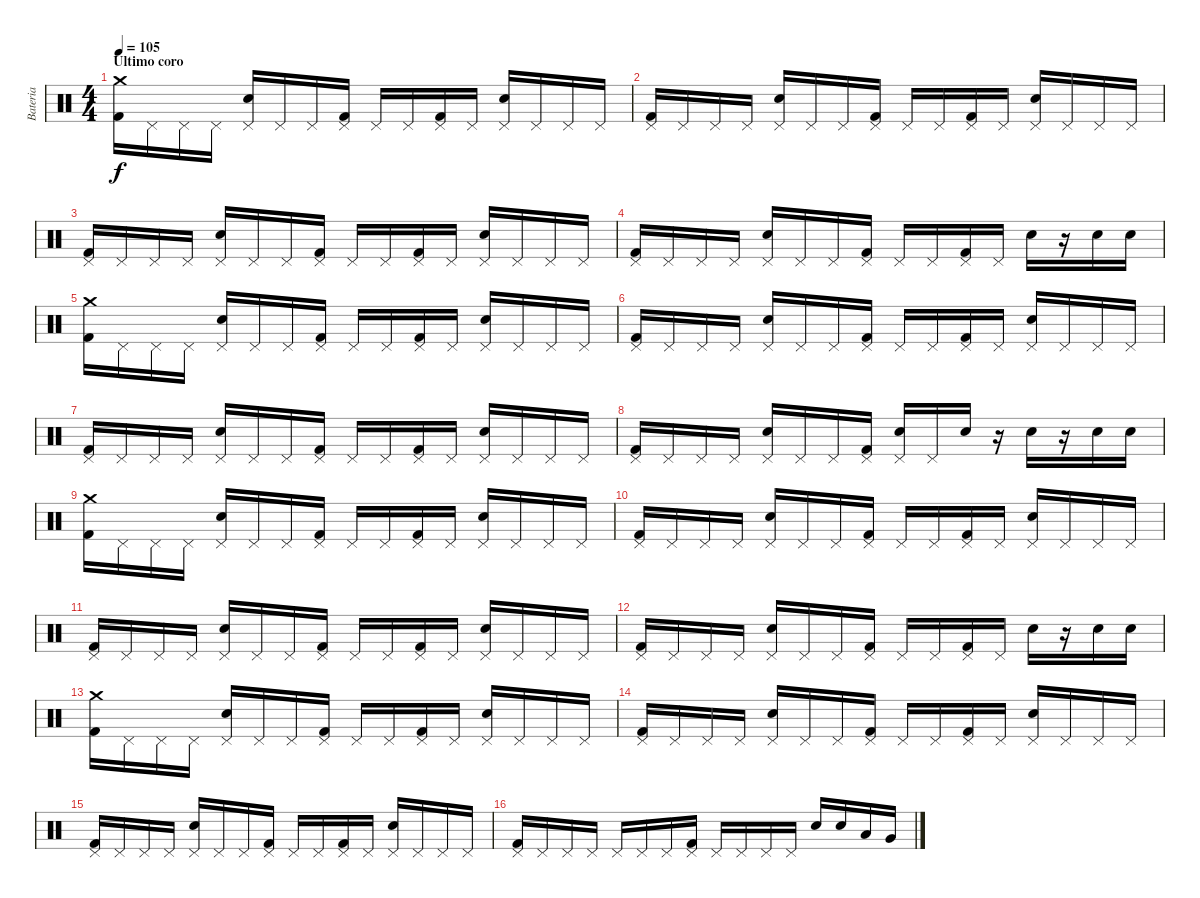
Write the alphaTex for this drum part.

\track ("Bateria" "Bateria") {instrument percussion}
\staff {score}
\articulation defaults
\ts (4 4)
\section ("" "Ultimo coro")
\tempo 105
\clef neutral
\ks c
("Crash medium (hit)" "Kick (hit) 2").16{dy f} "Pedal Hi-Hat (hit)".16 "Pedal Hi-Hat (hit)".16 "Pedal Hi-Hat (hit)".16 ("Pedal Hi-Hat (hit)" "Electric Snare (hit)").16 "Pedal Hi-Hat (hit)".16 "Pedal Hi-Hat (hit)".16 ("Pedal Hi-Hat (hit)" "Kick (hit) 2").16 "Pedal Hi-Hat (hit)".16 "Pedal Hi-Hat (hit)".16 ("Pedal Hi-Hat (hit)" "Kick (hit) 2").16 "Pedal Hi-Hat (hit)".16 ("Pedal Hi-Hat (hit)" "Electric Snare (hit)").16 "Pedal Hi-Hat (hit)".16 "Pedal Hi-Hat (hit)".16 "Pedal Hi-Hat (hit)".16 |
("Pedal Hi-Hat (hit)" "Kick (hit) 2").16 "Pedal Hi-Hat (hit)".16 "Pedal Hi-Hat (hit)".16 "Pedal Hi-Hat (hit)".16 ("Pedal Hi-Hat (hit)" "Electric Snare (hit)").16 "Pedal Hi-Hat (hit)".16 "Pedal Hi-Hat (hit)".16 ("Pedal Hi-Hat (hit)" "Kick (hit) 2").16 "Pedal Hi-Hat (hit)".16 "Pedal Hi-Hat (hit)".16 ("Pedal Hi-Hat (hit)" "Kick (hit) 2").16 "Pedal Hi-Hat (hit)".16 ("Pedal Hi-Hat (hit)" "Electric Snare (hit)").16 "Pedal Hi-Hat (hit)".16 "Pedal Hi-Hat (hit)".16 "Pedal Hi-Hat (hit)".16 |
("Pedal Hi-Hat (hit)" "Kick (hit) 2").16 "Pedal Hi-Hat (hit)".16 "Pedal Hi-Hat (hit)".16 "Pedal Hi-Hat (hit)".16 ("Pedal Hi-Hat (hit)" "Electric Snare (hit)").16 "Pedal Hi-Hat (hit)".16 "Pedal Hi-Hat (hit)".16 ("Pedal Hi-Hat (hit)" "Kick (hit) 2").16 "Pedal Hi-Hat (hit)".16 "Pedal Hi-Hat (hit)".16 ("Pedal Hi-Hat (hit)" "Kick (hit) 2").16 "Pedal Hi-Hat (hit)".16 ("Pedal Hi-Hat (hit)" "Electric Snare (hit)").16 "Pedal Hi-Hat (hit)".16 "Pedal Hi-Hat (hit)".16 "Pedal Hi-Hat (hit)".16 |
("Pedal Hi-Hat (hit)" "Kick (hit) 2").16 "Pedal Hi-Hat (hit)".16 "Pedal Hi-Hat (hit)".16 "Pedal Hi-Hat (hit)".16 ("Pedal Hi-Hat (hit)" "Electric Snare (hit)").16 "Pedal Hi-Hat (hit)".16 "Pedal Hi-Hat (hit)".16 ("Pedal Hi-Hat (hit)" "Kick (hit) 2").16 "Pedal Hi-Hat (hit)".16 "Pedal Hi-Hat (hit)".16 ("Pedal Hi-Hat (hit)" "Kick (hit) 2").16 "Pedal Hi-Hat (hit)".16 "Electric Snare (hit)".16 r.16 "Electric Snare (hit)".16 "Electric Snare (hit)".16 |
("Crash medium (hit)" "Kick (hit) 2").16 "Pedal Hi-Hat (hit)".16 "Pedal Hi-Hat (hit)".16 "Pedal Hi-Hat (hit)".16 ("Pedal Hi-Hat (hit)" "Electric Snare (hit)").16 "Pedal Hi-Hat (hit)".16 "Pedal Hi-Hat (hit)".16 ("Pedal Hi-Hat (hit)" "Kick (hit) 2").16 "Pedal Hi-Hat (hit)".16 "Pedal Hi-Hat (hit)".16 ("Pedal Hi-Hat (hit)" "Kick (hit) 2").16 "Pedal Hi-Hat (hit)".16 ("Pedal Hi-Hat (hit)" "Electric Snare (hit)").16 "Pedal Hi-Hat (hit)".16 "Pedal Hi-Hat (hit)".16 "Pedal Hi-Hat (hit)".16 |
("Pedal Hi-Hat (hit)" "Kick (hit) 2").16 "Pedal Hi-Hat (hit)".16 "Pedal Hi-Hat (hit)".16 "Pedal Hi-Hat (hit)".16 ("Pedal Hi-Hat (hit)" "Electric Snare (hit)").16 "Pedal Hi-Hat (hit)".16 "Pedal Hi-Hat (hit)".16 ("Pedal Hi-Hat (hit)" "Kick (hit) 2").16 "Pedal Hi-Hat (hit)".16 "Pedal Hi-Hat (hit)".16 ("Pedal Hi-Hat (hit)" "Kick (hit) 2").16 "Pedal Hi-Hat (hit)".16 ("Pedal Hi-Hat (hit)" "Electric Snare (hit)").16 "Pedal Hi-Hat (hit)".16 "Pedal Hi-Hat (hit)".16 "Pedal Hi-Hat (hit)".16 |
("Pedal Hi-Hat (hit)" "Kick (hit) 2").16 "Pedal Hi-Hat (hit)".16 "Pedal Hi-Hat (hit)".16 "Pedal Hi-Hat (hit)".16 ("Pedal Hi-Hat (hit)" "Electric Snare (hit)").16 "Pedal Hi-Hat (hit)".16 "Pedal Hi-Hat (hit)".16 ("Pedal Hi-Hat (hit)" "Kick (hit) 2").16 "Pedal Hi-Hat (hit)".16 "Pedal Hi-Hat (hit)".16 ("Pedal Hi-Hat (hit)" "Kick (hit) 2").16 "Pedal Hi-Hat (hit)".16 ("Pedal Hi-Hat (hit)" "Electric Snare (hit)").16 "Pedal Hi-Hat (hit)".16 "Pedal Hi-Hat (hit)".16 "Pedal Hi-Hat (hit)".16 |
("Pedal Hi-Hat (hit)" "Kick (hit) 2").16 "Pedal Hi-Hat (hit)".16 "Pedal Hi-Hat (hit)".16 "Pedal Hi-Hat (hit)".16 ("Pedal Hi-Hat (hit)" "Electric Snare (hit)").16 "Pedal Hi-Hat (hit)".16 "Pedal Hi-Hat (hit)".16 ("Pedal Hi-Hat (hit)" "Kick (hit) 2").16 ("Pedal Hi-Hat (hit)" "Electric Snare (hit)").16 "Pedal Hi-Hat (hit)".16 "Electric Snare (hit)".16 r.16 "Electric Snare (hit)".16 r.16 "Electric Snare (hit)".16 "Electric Snare (hit)".16 |
("Crash medium (hit)" "Kick (hit) 2").16 "Pedal Hi-Hat (hit)".16 "Pedal Hi-Hat (hit)".16 "Pedal Hi-Hat (hit)".16 ("Pedal Hi-Hat (hit)" "Electric Snare (hit)").16 "Pedal Hi-Hat (hit)".16 "Pedal Hi-Hat (hit)".16 ("Pedal Hi-Hat (hit)" "Kick (hit) 2").16 "Pedal Hi-Hat (hit)".16 "Pedal Hi-Hat (hit)".16 ("Pedal Hi-Hat (hit)" "Kick (hit) 2").16 "Pedal Hi-Hat (hit)".16 ("Pedal Hi-Hat (hit)" "Electric Snare (hit)").16 "Pedal Hi-Hat (hit)".16 "Pedal Hi-Hat (hit)".16 "Pedal Hi-Hat (hit)".16 |
("Pedal Hi-Hat (hit)" "Kick (hit) 2").16 "Pedal Hi-Hat (hit)".16 "Pedal Hi-Hat (hit)".16 "Pedal Hi-Hat (hit)".16 ("Pedal Hi-Hat (hit)" "Electric Snare (hit)").16 "Pedal Hi-Hat (hit)".16 "Pedal Hi-Hat (hit)".16 ("Pedal Hi-Hat (hit)" "Kick (hit) 2").16 "Pedal Hi-Hat (hit)".16 "Pedal Hi-Hat (hit)".16 ("Pedal Hi-Hat (hit)" "Kick (hit) 2").16 "Pedal Hi-Hat (hit)".16 ("Pedal Hi-Hat (hit)" "Electric Snare (hit)").16 "Pedal Hi-Hat (hit)".16 "Pedal Hi-Hat (hit)".16 "Pedal Hi-Hat (hit)".16 |
("Pedal Hi-Hat (hit)" "Kick (hit) 2").16 "Pedal Hi-Hat (hit)".16 "Pedal Hi-Hat (hit)".16 "Pedal Hi-Hat (hit)".16 ("Pedal Hi-Hat (hit)" "Electric Snare (hit)").16 "Pedal Hi-Hat (hit)".16 "Pedal Hi-Hat (hit)".16 ("Pedal Hi-Hat (hit)" "Kick (hit) 2").16 "Pedal Hi-Hat (hit)".16 "Pedal Hi-Hat (hit)".16 ("Pedal Hi-Hat (hit)" "Kick (hit) 2").16 "Pedal Hi-Hat (hit)".16 ("Pedal Hi-Hat (hit)" "Electric Snare (hit)").16 "Pedal Hi-Hat (hit)".16 "Pedal Hi-Hat (hit)".16 "Pedal Hi-Hat (hit)".16 |
("Pedal Hi-Hat (hit)" "Kick (hit) 2").16 "Pedal Hi-Hat (hit)".16 "Pedal Hi-Hat (hit)".16 "Pedal Hi-Hat (hit)".16 ("Pedal Hi-Hat (hit)" "Electric Snare (hit)").16 "Pedal Hi-Hat (hit)".16 "Pedal Hi-Hat (hit)".16 ("Pedal Hi-Hat (hit)" "Kick (hit) 2").16 "Pedal Hi-Hat (hit)".16 "Pedal Hi-Hat (hit)".16 ("Pedal Hi-Hat (hit)" "Kick (hit) 2").16 "Pedal Hi-Hat (hit)".16 "Electric Snare (hit)".16 r.16 "Electric Snare (hit)".16 "Electric Snare (hit)".16 |
("Crash medium (hit)" "Kick (hit) 2").16 "Pedal Hi-Hat (hit)".16 "Pedal Hi-Hat (hit)".16 "Pedal Hi-Hat (hit)".16 ("Pedal Hi-Hat (hit)" "Electric Snare (hit)").16 "Pedal Hi-Hat (hit)".16 "Pedal Hi-Hat (hit)".16 ("Pedal Hi-Hat (hit)" "Kick (hit) 2").16 "Pedal Hi-Hat (hit)".16 "Pedal Hi-Hat (hit)".16 ("Pedal Hi-Hat (hit)" "Kick (hit) 2").16 "Pedal Hi-Hat (hit)".16 ("Pedal Hi-Hat (hit)" "Electric Snare (hit)").16 "Pedal Hi-Hat (hit)".16 "Pedal Hi-Hat (hit)".16 "Pedal Hi-Hat (hit)".16 |
("Pedal Hi-Hat (hit)" "Kick (hit) 2").16 "Pedal Hi-Hat (hit)".16 "Pedal Hi-Hat (hit)".16 "Pedal Hi-Hat (hit)".16 ("Pedal Hi-Hat (hit)" "Electric Snare (hit)").16 "Pedal Hi-Hat (hit)".16 "Pedal Hi-Hat (hit)".16 ("Pedal Hi-Hat (hit)" "Kick (hit) 2").16 "Pedal Hi-Hat (hit)".16 "Pedal Hi-Hat (hit)".16 ("Pedal Hi-Hat (hit)" "Kick (hit) 2").16 "Pedal Hi-Hat (hit)".16 ("Pedal Hi-Hat (hit)" "Electric Snare (hit)").16 "Pedal Hi-Hat (hit)".16 "Pedal Hi-Hat (hit)".16 "Pedal Hi-Hat (hit)".16 |
("Pedal Hi-Hat (hit)" "Kick (hit) 2").16 "Pedal Hi-Hat (hit)".16 "Pedal Hi-Hat (hit)".16 "Pedal Hi-Hat (hit)".16 ("Pedal Hi-Hat (hit)" "Electric Snare (hit)").16 "Pedal Hi-Hat (hit)".16 "Pedal Hi-Hat (hit)".16 ("Pedal Hi-Hat (hit)" "Kick (hit) 2").16 "Pedal Hi-Hat (hit)".16 "Pedal Hi-Hat (hit)".16 ("Pedal Hi-Hat (hit)" "Kick (hit) 2").16 "Pedal Hi-Hat (hit)".16 ("Pedal Hi-Hat (hit)" "Electric Snare (hit)").16 "Pedal Hi-Hat (hit)".16 "Pedal Hi-Hat (hit)".16 "Pedal Hi-Hat (hit)".16 |
("Pedal Hi-Hat (hit)" "Kick (hit) 2").16 "Pedal Hi-Hat (hit)".16 "Pedal Hi-Hat (hit)".16 "Pedal Hi-Hat (hit)".16 "Pedal Hi-Hat (hit)".16 "Pedal Hi-Hat (hit)".16 "Pedal Hi-Hat (hit)".16 ("Pedal Hi-Hat (hit)" "Kick (hit) 2").16 "Pedal Hi-Hat (hit)".16 "Pedal Hi-Hat (hit)".16 "Pedal Hi-Hat (hit)".16 "Pedal Hi-Hat (hit)".16 "Electric Snare (hit)".16 "Electric Snare (hit)".16 "Low Floor Tom (hit)".16 "Very Low Tom (hit)".16
